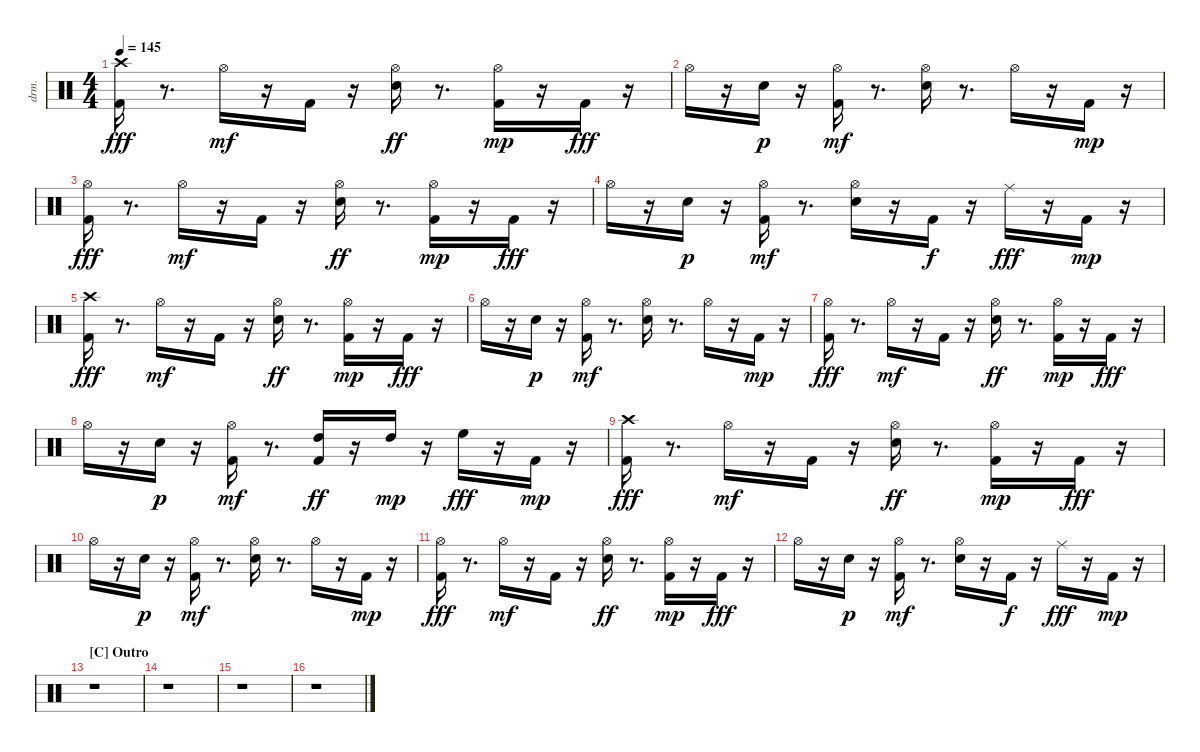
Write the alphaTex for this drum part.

\bracketExtendMode nobrackets
\track ("EZdrummer 3" "drm.") {instrument percussion}
\staff {score}
\articulation defaults
\ts (4 4)
\tempo 145
\clef neutral
\ks aminor
("Kick (hit) 2" "Crash high (hit)"{acc #}).16{dy fff} r.8{d} "Hi-Hat (open)"{acc #}.16{dy mf} r.16 "Kick (hit) 2".16 r.16 ("Snare (hit) 2" "Hi-Hat (open)"{acc #}).16{dy ff} r.8{d} ("Kick (hit) 2" "Hi-Hat (open)"{acc #}).16{dy mp} r.16 "Kick (hit) 2".16{dy fff} r.16 |
"Hi-Hat (open)"{acc #}.16 r.16 "Snare (hit) 2".16{dy p} r.16 ("Kick (hit) 2" "Hi-Hat (open)"{acc #}).16{dy mf} r.8{d} ("Snare (hit) 2" "Hi-Hat (open)"{acc #}).16 r.8{d} "Hi-Hat (open)"{acc #}.16 r.16 "Kick (hit) 2".16{dy mp} r.16 |
("Kick (hit) 2" "Hi-Hat (open)"{acc #}).16{dy fff} r.8{d} "Hi-Hat (open)"{acc #}.16{dy mf} r.16 "Kick (hit) 2".16 r.16 ("Snare (hit) 2" "Hi-Hat (open)"{acc #}).16{dy ff} r.8{d} ("Kick (hit) 2" "Hi-Hat (open)"{acc #}).16{dy mp} r.16 "Kick (hit) 2".16{dy fff} r.16 |
"Hi-Hat (open)"{acc #}.16 r.16 "Snare (hit) 2".16{dy p} r.16 ("Kick (hit) 2" "Hi-Hat (open)"{acc #}).16{dy mf} r.8{d} ("Snare (hit) 2" "Hi-Hat (open)"{acc #}).16 r.16 "Kick (hit) 2".16{dy f} r.16 "Ride (middle)"{acc #}.16{dy fff} r.16 "Kick (hit) 2".16{dy mp} r.16 |
("Kick (hit) 2" "Crash high (hit)"{acc #}).16{dy fff} r.8{d} "Hi-Hat (open)"{acc #}.16{dy mf} r.16 "Kick (hit) 2".16 r.16 ("Snare (hit) 2" "Hi-Hat (open)"{acc #}).16{dy ff} r.8{d} ("Kick (hit) 2" "Hi-Hat (open)"{acc #}).16{dy mp} r.16 "Kick (hit) 2".16{dy fff} r.16 |
"Hi-Hat (open)"{acc #}.16 r.16 "Snare (hit) 2".16{dy p} r.16 ("Kick (hit) 2" "Hi-Hat (open)"{acc #}).16{dy mf} r.8{d} ("Snare (hit) 2" "Hi-Hat (open)"{acc #}).16 r.8{d} "Hi-Hat (open)"{acc #}.16 r.16 "Kick (hit) 2".16{dy mp} r.16 |
("Kick (hit) 2" "Hi-Hat (open)"{acc #}).16{dy fff} r.8{d} "Hi-Hat (open)"{acc #}.16{dy mf} r.16 "Kick (hit) 2".16 r.16 ("Snare (hit) 2" "Hi-Hat (open)"{acc #}).16{dy ff} r.8{d} ("Kick (hit) 2" "Hi-Hat (open)"{acc #}).16{dy mp} r.16 "Kick (hit) 2".16{dy fff} r.16 |
"Hi-Hat (open)"{acc #}.16 r.16 "Snare (hit) 2".16{dy p} r.16 ("Kick (hit) 2" "Hi-Hat (open)"{acc #}).16{dy mf} r.8{d} ("Kick (hit) 2" "High Tom (hit)").16{dy ff} r.16 "High Tom (hit)".16{dy mp} r.16 "High Floor Tom (hit)".16{dy fff} r.16 "Kick (hit) 2".16{dy mp} r.16 |
("Kick (hit) 2" "Crash high (hit)"{acc #}).16{dy fff} r.8{d} "Hi-Hat (open)"{acc #}.16{dy mf} r.16 "Kick (hit) 2".16 r.16 ("Snare (hit) 2" "Hi-Hat (open)"{acc #}).16{dy ff} r.8{d} ("Kick (hit) 2" "Hi-Hat (open)"{acc #}).16{dy mp} r.16 "Kick (hit) 2".16{dy fff} r.16 |
"Hi-Hat (open)"{acc #}.16 r.16 "Snare (hit) 2".16{dy p} r.16 ("Kick (hit) 2" "Hi-Hat (open)"{acc #}).16{dy mf} r.8{d} ("Snare (hit) 2" "Hi-Hat (open)"{acc #}).16 r.8{d} "Hi-Hat (open)"{acc #}.16 r.16 "Kick (hit) 2".16{dy mp} r.16 |
("Kick (hit) 2" "Hi-Hat (open)"{acc #}).16{dy fff} r.8{d} "Hi-Hat (open)"{acc #}.16{dy mf} r.16 "Kick (hit) 2".16 r.16 ("Snare (hit) 2" "Hi-Hat (open)"{acc #}).16{dy ff} r.8{d} ("Kick (hit) 2" "Hi-Hat (open)"{acc #}).16{dy mp} r.16 "Kick (hit) 2".16{dy fff} r.16 |
"Hi-Hat (open)"{acc #}.16 r.16 "Snare (hit) 2".16{dy p} r.16 ("Kick (hit) 2" "Hi-Hat (open)"{acc #}).16{dy mf} r.8{d} ("Snare (hit) 2" "Hi-Hat (open)"{acc #}).16 r.16 "Kick (hit) 2".16{dy f} r.16 "Ride (middle)"{acc #}.16{dy fff} r.16 "Kick (hit) 2".16{dy mp} r.16 |
\section ("C" "Outro")
r.1 |
r.1 |
r.1 |
r.1
